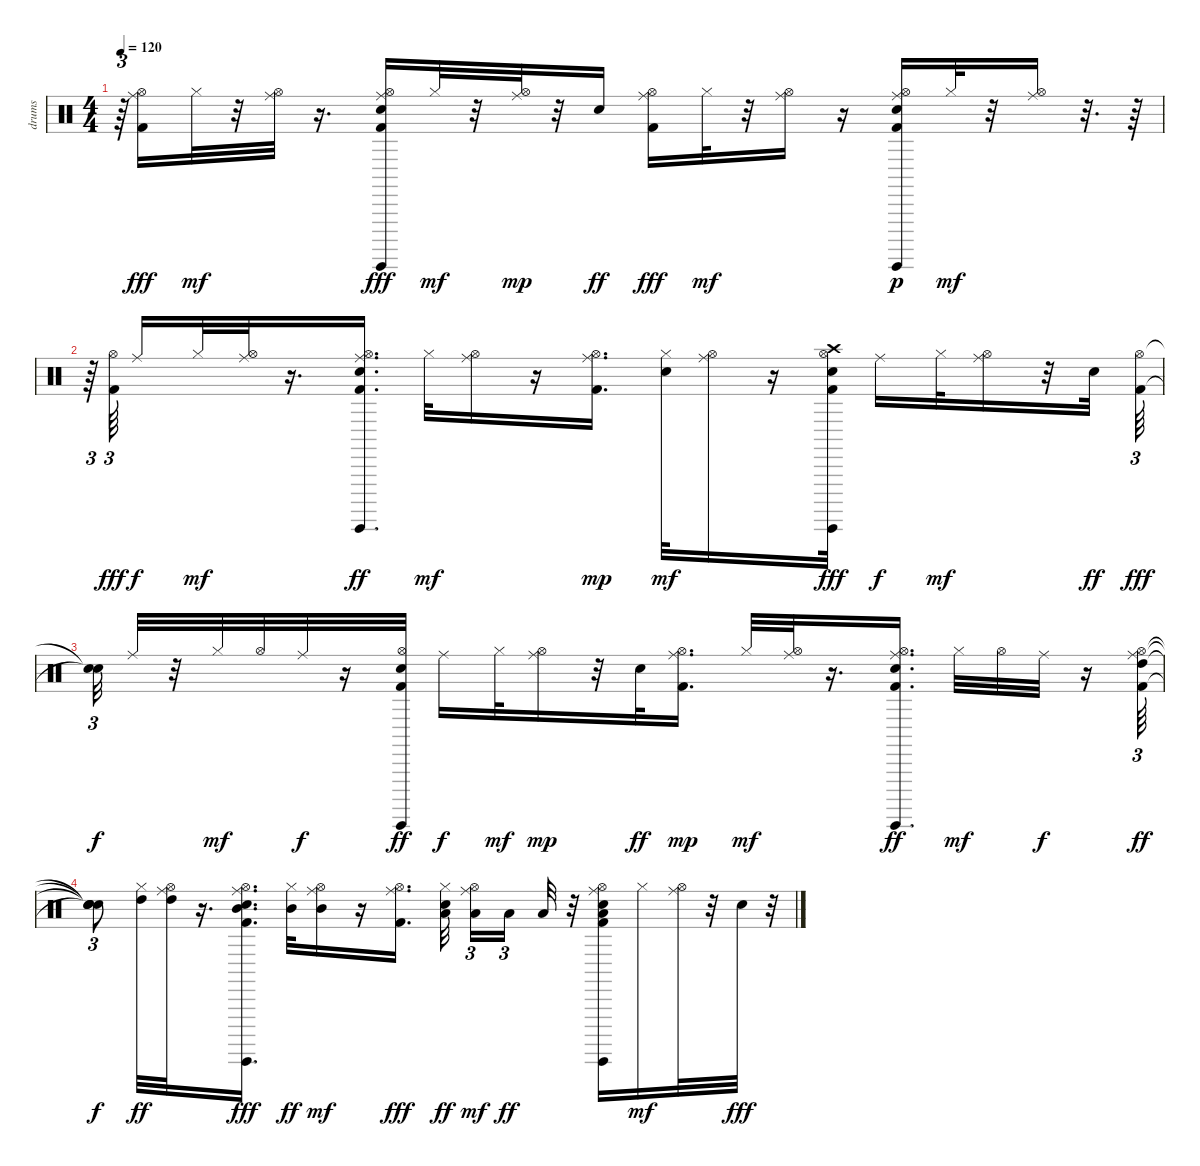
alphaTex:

\track ("drums                               " "drums     ") {instrument percussion}
\staff {score}
\articulation defaults
\ts (4 4)
\tempo 120
\clef neutral
\ks c
r.64{tu (3 2) dy fff} ("Hi-Hat (open)" "Kick (hit) 2" "Ride (middle)").16 "Hi-Hat (closed)".32{dy mf} r.32 ("Ride (middle)" "Hi-Hat (open)").32 r.16{d} ("Hi-Hat (open)" "Electric Snare (hit)" "Guiro (hit)" "Kick (hit) 2" "Ride (middle)").16{dy fff} "Hi-Hat (closed)".32{dy mf} r.32 ("Ride (middle)" "Hi-Hat (open)").32{dy mp} r.32 "Electric Snare (hit)".16{dy ff} ("Hi-Hat (open)" "Kick (hit) 2" "Ride (middle)").16{dy fff} "Hi-Hat (closed)".32{dy mf} r.32 ("Ride (middle)" "Hi-Hat (open)").16 r.16 ("Kick (hit) 2" "Guiro (hit)" "Electric Snare (hit)" "Hi-Hat (open)" "Ride (middle)").16{dy p} "Hi-Hat (closed)".32{dy mf} r.32 ("Hi-Hat (open)" "Ride (middle)").16 r.32{d} r.64 |
r.64{tu (3 2)} ("Hi-Hat (open)" "Kick (hit) 2").64{tu (3 2) dy fff beam splitsecondary} "Ride (middle)".16{dy f} "Hi-Hat (closed)".32{dy mf} ("Hi-Hat (open)" "Ride (middle)").32 r.16{d} ("Hi-Hat (open)" "Kick (hit) 2" "Electric Snare (hit)" "Guiro (hit)" "Ride (middle)").16{d dy ff} "Hi-Hat (closed)".32{dy mf} ("Hi-Hat (open)" "Ride (middle)").16 r.16 ("Ride (middle)" "Kick (hit) 2" "Hi-Hat (open)").16{d dy mp} ("Electric Snare (hit)" "Hi-Hat (closed)").32{dy mf} ("Hi-Hat (open)" "Ride (middle)").16 r.16 ("Hi-Hat (open)" "Electric Snare (hit)" "Kick (hit) 2" "Guiro (hit)" "Crash high (hit)").32{dy fff} "Ride (middle)".16{dy f} "Hi-Hat (closed)".32{dy mf} ("Hi-Hat (open)" "Ride (middle)").16 r.32 "Electric Snare (hit)".32{dy ff} ("Hi-Hat (open)" "Kick (hit) 2").64{tu (3 2) dy fff} |
("Snare (hit)"{t} "Snare (hit)"{t}).32{tu (3 2) dy f} "Ride (middle)".32 r.32 "Hi-Hat (closed)".32{dy mf} "Hi-Hat (open)".32 "Ride (middle)".32{dy f} r.16 ("Kick (hit) 2" "Guiro (hit)" "Hi-Hat (open)" "Electric Snare (hit)").32{dy ff} "Ride (middle)".16{dy f} "Hi-Hat (closed)".32{dy mf} ("Hi-Hat (open)" "Ride (middle)").16{dy mp} r.32 "Electric Snare (hit)".32{dy ff} ("Ride (middle)" "Kick (hit) 2" "Hi-Hat (open)").16{d dy mp} "Hi-Hat (closed)".32{dy mf} ("Hi-Hat (open)" "Ride (middle)").32 r.16{d} ("Kick (hit) 2" "Hi-Hat (open)" "Guiro (hit)" "Electric Snare (hit)" "Ride (middle)").16{d dy ff} "Hi-Hat (closed)".32{dy mf} "Hi-Hat (open)".32 "Ride (middle)".32{dy f} r.16 ("Hi-Hat (open)" "Kick (hit) 2" "High Tom (hit)" "Ride (middle)").64{tu (3 2) dy ff} |
("Snare (hit)"{t} "Snare (hit)"{t} "Snare (hit)"{t} "Snare (hit)"{t}).8{tu (3 2) dy f} ("Hi-Hat (closed)" "High Tom (hit)").32{dy ff} ("Ride (middle)" "Hi-Hat (open)" "High Tom (hit)").32 r.16{d} ("Hi-Hat (open)" "Electric Snare (hit)" "Guiro (hit)" "Mid Tom (hit)" "Kick (hit) 2" "Ride (middle)").16{d dy fff} ("Hi-Hat (closed)" "Mid Tom (hit)").32{dy ff} ("Ride (middle)" "Mid Tom (hit)" "Hi-Hat (open)").16{dy mf} r.16 ("Ride (middle)" "Hi-Hat (open)" "Kick (hit) 2").16{d dy fff} ("Electric Snare (hit)" "Hi-Hat (closed)" "Low Tom (hit)").32{dy ff beam splitsecondary} ("Ride (middle)" "Low Tom (hit)" "Hi-Hat (open)").16{tu (3 2) dy mf} "Low Tom (hit)".16{tu (3 2) dy ff beam splitsecondary} "Low Tom (hit)".32 r.32 ("Ride (middle)" "Kick (hit) 2" "Electric Snare (hit)" "Hi-Hat (open)" "Low Floor Tom (hit)" "Guiro (hit)").16 "Hi-Hat (closed)".16{dy mf} ("Ride (middle)" "Hi-Hat (open)").32 r.32 "Electric Snare (hit)".32{dy fff} r.32{tu (3 2)}
